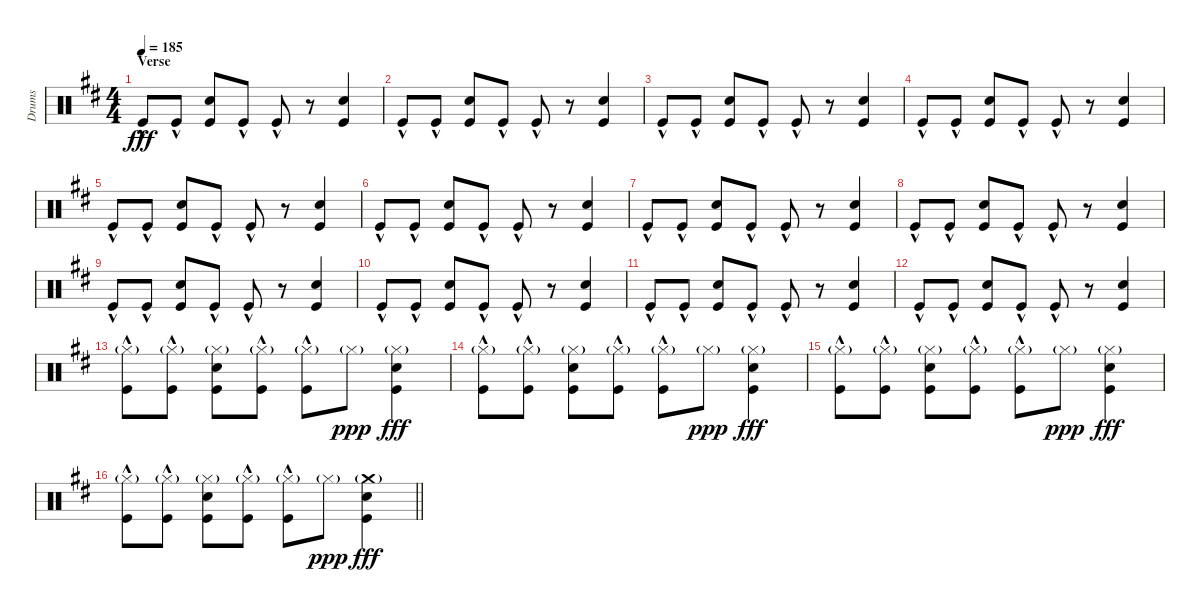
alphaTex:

\track ("Drums" "Drums") {instrument percussion}
\staff {score}
\articulation defaults
\ts (4 4)
\section ("" "Verse")
\tempo 185
\clef neutral
\ks d "Kick (hit)"{hac}.8{dy fff} "Kick (hit)"{hac}.8
("Snare (hit) 2" "Kick (hit)").8 "Kick (hit)"{hac}.8 "Kick (hit)"{hac}.8 r.8 ("Snare (hit) 2" "Kick (hit)").4 |
"Kick (hit)"{hac}.8 "Kick (hit)"{hac}.8 ("Snare (hit) 2" "Kick (hit)").8 "Kick (hit)"{hac}.8 "Kick (hit)"{hac}.8 r.8 ("Snare (hit) 2" "Kick (hit)").4 |
"Kick (hit)"{hac}.8 "Kick (hit)"{hac}.8 ("Snare (hit) 2" "Kick (hit)").8 "Kick (hit)"{hac}.8 "Kick (hit)"{hac}.8 r.8 ("Snare (hit) 2" "Kick (hit)").4 |
"Kick (hit)"{hac}.8 "Kick (hit)"{hac}.8 ("Snare (hit) 2" "Kick (hit)").8 "Kick (hit)"{hac}.8 "Kick (hit)"{hac}.8 r.8 ("Snare (hit) 2" "Kick (hit)").4 |
"Kick (hit)"{hac}.8 "Kick (hit)"{hac}.8 ("Snare (hit) 2" "Kick (hit)").8 "Kick (hit)"{hac}.8 "Kick (hit)"{hac}.8 r.8 ("Snare (hit) 2" "Kick (hit)").4 |
"Kick (hit)"{hac}.8 "Kick (hit)"{hac}.8 ("Snare (hit) 2" "Kick (hit)").8 "Kick (hit)"{hac}.8 "Kick (hit)"{hac}.8 r.8 ("Snare (hit) 2" "Kick (hit)").4 |
"Kick (hit)"{hac}.8 "Kick (hit)"{hac}.8 ("Snare (hit) 2" "Kick (hit)").8 "Kick (hit)"{hac}.8 "Kick (hit)"{hac}.8 r.8 ("Snare (hit) 2" "Kick (hit)").4 |
"Kick (hit)"{hac}.8 "Kick (hit)"{hac}.8 ("Snare (hit) 2" "Kick (hit)").8 "Kick (hit)"{hac}.8 "Kick (hit)"{hac}.8 r.8 ("Snare (hit) 2" "Kick (hit)").4 |
"Kick (hit)"{hac}.8 "Kick (hit)"{hac}.8 ("Snare (hit) 2" "Kick (hit)").8 "Kick (hit)"{hac}.8 "Kick (hit)"{hac}.8 r.8 ("Snare (hit) 2" "Kick (hit)").4 |
"Kick (hit)"{hac}.8 "Kick (hit)"{hac}.8 ("Snare (hit) 2" "Kick (hit)").8 "Kick (hit)"{hac}.8 "Kick (hit)"{hac}.8 r.8 ("Snare (hit) 2" "Kick (hit)").4 |
"Kick (hit)"{hac}.8 "Kick (hit)"{hac}.8 ("Snare (hit) 2" "Kick (hit)").8 "Kick (hit)"{hac}.8 "Kick (hit)"{hac}.8 r.8 ("Snare (hit) 2" "Kick (hit)").4 |
"Kick (hit)"{hac}.8 "Kick (hit)"{hac}.8 ("Snare (hit) 2" "Kick (hit)").8 "Kick (hit)"{hac}.8 "Kick (hit)"{hac}.8 r.8 ("Snare (hit) 2" "Kick (hit)").4 |
("Hi-Hat (closed)"{g} "Kick (hit)"{hac}).8 ("Hi-Hat (closed)"{g} "Kick (hit)"{hac}).8 ("Hi-Hat (closed)"{g} "Snare (hit) 2" "Kick (hit)").8 ("Hi-Hat (closed)"{g} "Kick (hit)"{hac}).8 ("Hi-Hat (closed)"{g} "Kick (hit)"{hac}).8 "Hi-Hat (closed)"{g}.8{dy ppp} ("Hi-Hat (closed)"{g} "Snare (hit) 2" "Kick (hit)").4{dy fff} |
("Hi-Hat (closed)"{g} "Kick (hit)"{hac}).8 ("Hi-Hat (closed)"{g} "Kick (hit)"{hac}).8 ("Hi-Hat (closed)"{g} "Snare (hit) 2" "Kick (hit)").8 ("Hi-Hat (closed)"{g} "Kick (hit)"{hac}).8 ("Hi-Hat (closed)"{g} "Kick (hit)"{hac}).8 "Hi-Hat (closed)"{g}.8{dy ppp} ("Hi-Hat (closed)"{g} "Snare (hit) 2" "Kick (hit)").4{dy fff} |
("Hi-Hat (closed)"{g} "Kick (hit)"{hac}).8 ("Hi-Hat (closed)"{g} "Kick (hit)"{hac}).8 ("Hi-Hat (closed)"{g} "Snare (hit) 2" "Kick (hit)").8 ("Hi-Hat (closed)"{g} "Kick (hit)"{hac}).8 ("Hi-Hat (closed)"{g} "Kick (hit)"{hac}).8 "Hi-Hat (closed)"{g}.8{dy ppp} ("Hi-Hat (closed)"{g} "Snare (hit) 2" "Kick (hit)").4{dy fff} |
\barLineRight lightlight
("Hi-Hat (closed)"{g} "Kick (hit)"{hac}).8 ("Hi-Hat (closed)"{g} "Kick (hit)"{hac}).8 ("Hi-Hat (closed)"{g} "Snare (hit) 2" "Kick (hit)").8 ("Hi-Hat (closed)"{g} "Kick (hit)"{hac}).8 ("Hi-Hat (closed)"{g} "Kick (hit)"{hac}).8 "Hi-Hat (closed)"{g}.8{dy ppp} ("Crash medium (hit)"{g} "Snare (hit) 2" "Kick (hit)").4{dy fff}
